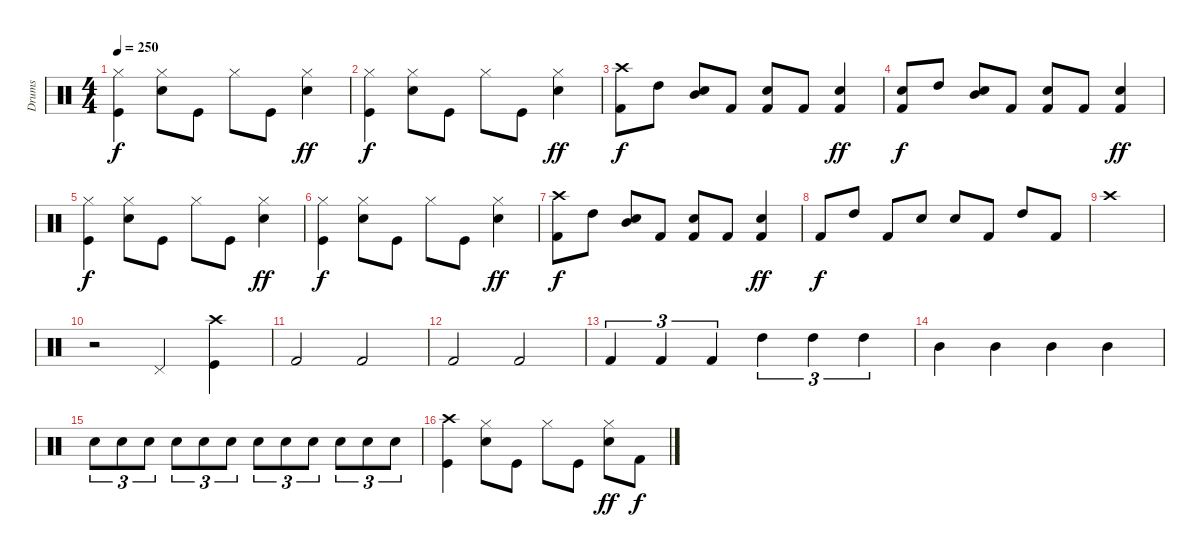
\track ("Drums" "Drums") {instrument percussion}
\staff {score}
\articulation defaults
\ts (4 4)
\tempo 250
\clef neutral
\ks c
("Hi-Hat (closed)" "Kick (hit)").4{dy f} ("Hi-Hat (closed)" "Snare (hit) 2").8 "Kick (hit)".8 "Hi-Hat (closed)".8 "Kick (hit)".8 ("Hi-Hat (closed)" "Snare (hit) 2").4{dy ff} |
("Hi-Hat (closed)" "Kick (hit)").4{dy f} ("Hi-Hat (closed)" "Snare (hit) 2").8 "Kick (hit)".8 "Hi-Hat (closed)".8 "Kick (hit)".8 ("Hi-Hat (closed)" "Snare (hit) 2").4{dy ff} |
("Kick (hit) 2" "Crash high (hit)").8{dy f} "High Tom (hit)".8 ("Mid Tom (hit)" "Electric Snare (hit)").8 "Kick (hit) 2".8 ("Kick (hit) 2" "Electric Snare (hit)").8 "Kick (hit) 2".8 ("Kick (hit) 2" "Electric Snare (hit)").4{dy ff} |
("Kick (hit) 2" "Electric Snare (hit)").8{dy f} "High Tom (hit)".8 ("Mid Tom (hit)" "Electric Snare (hit)").8 "Kick (hit) 2".8 ("Kick (hit) 2" "Electric Snare (hit)").8 "Kick (hit) 2".8 ("Kick (hit) 2" "Electric Snare (hit)").4{dy ff} |
("Hi-Hat (closed)" "Kick (hit)").4{dy f} ("Hi-Hat (closed)" "Snare (hit) 2").8 "Kick (hit)".8 "Hi-Hat (closed)".8 "Kick (hit)".8 ("Hi-Hat (closed)" "Snare (hit) 2").4{dy ff} |
("Hi-Hat (closed)" "Kick (hit)").4{dy f} ("Hi-Hat (closed)" "Snare (hit) 2").8 "Kick (hit)".8 "Hi-Hat (closed)".8 "Kick (hit)".8 ("Hi-Hat (closed)" "Snare (hit) 2").4{dy ff} |
("Kick (hit) 2" "Crash high (hit)").8{dy f} "High Tom (hit)".8 ("Mid Tom (hit)" "Electric Snare (hit)").8 "Kick (hit) 2".8 ("Kick (hit) 2" "Electric Snare (hit)").8 "Kick (hit) 2".8 ("Kick (hit) 2" "Electric Snare (hit)").4{dy ff} |
"Kick (hit) 2".8{dy f} "High Tom (hit)".8 "Kick (hit) 2".8 "Snare (hit) 2".8 "Electric Snare (hit)".8 "Kick (hit) 2".8 "High Tom (hit)".8 "Kick (hit) 2".8 |
"Crash high (hit)".1 |
r.2 "Pedal Hi-Hat (hit)".4 ("Crash high (hit)" "Kick (hit)").4 |
"Kick (hit) 2".2 "Kick (hit) 2".2 |
"Kick (hit) 2".2 "Kick (hit) 2".2 |
"Kick (hit) 2".4{tu (3 2)} "Kick (hit) 2".4{tu (3 2)} "Kick (hit) 2".4{tu (3 2)} "High Tom (hit)".4{tu (3 2)} "High Tom (hit)".4{tu (3 2)} "High Tom (hit)".4{tu (3 2)} |
"Mid Tom (hit)".4 "Mid Tom (hit)".4 "Mid Tom (hit)".4 "Mid Tom (hit)".4 |
"Snare (hit) 2".8{tu (3 2)} "Snare (hit) 2".8{tu (3 2)} "Snare (hit) 2".8{tu (3 2)} "Snare (hit) 2".8{tu (3 2)} "Snare (hit) 2".8{tu (3 2)} "Snare (hit) 2".8{tu (3 2)} "Snare (hit) 2".8{tu (3 2)} "Snare (hit) 2".8{tu (3 2)} "Snare (hit) 2".8{tu (3 2)} "Snare (hit) 2".8{tu (3 2)} "Snare (hit) 2".8{tu (3 2)} "Snare (hit) 2".8{tu (3 2)} |
("Crash high (hit)" "Kick (hit)").4 ("Hi-Hat (closed)" "Snare (hit) 2").8 "Kick (hit)".8 "Hi-Hat (closed)".8 "Kick (hit)".8 ("Hi-Hat (closed)" "Snare (hit) 2").8{dy ff} "Kick (hit) 2".8{dy f}
